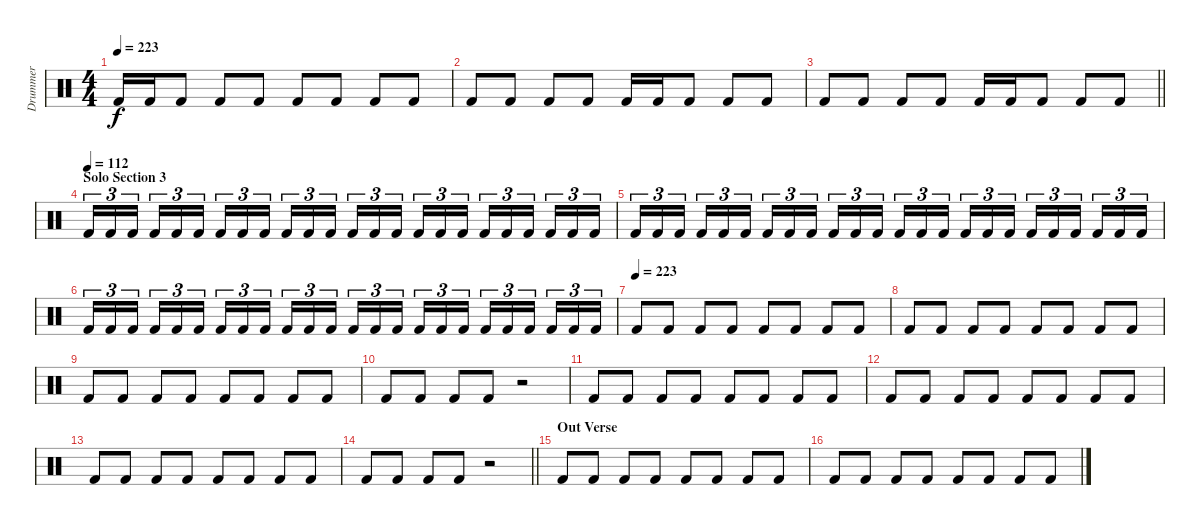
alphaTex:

\track ("Drummer" "Drummer") {instrument percussion}
\staff {score}
\articulation defaults
\ts (4 4)
\tempo 223
\clef neutral
\ks c "Kick (hit) 2".16{dy f} "Kick (hit) 2".16 "Kick (hit) 2".8 "Kick (hit) 2".8 "Kick (hit) 2".8 "Kick (hit) 2".8 "Kick (hit) 2".8 "Kick (hit) 2".8 "Kick (hit) 2".8
|
"Kick (hit) 2".8 "Kick (hit) 2".8 "Kick (hit) 2".8 "Kick (hit) 2".8 "Kick (hit) 2".16 "Kick (hit) 2".16 "Kick (hit) 2".8 "Kick (hit) 2".8 "Kick (hit) 2".8 |
\barLineRight lightlight "Kick (hit) 2".8 "Kick (hit) 2".8 "Kick (hit) 2".8 "Kick (hit) 2".8 "Kick (hit) 2".16 "Kick (hit) 2".16 "Kick (hit) 2".8 "Kick (hit) 2".8 "Kick (hit) 2".8
|
\section ("" "Solo Section 3")
\tempo (112)
"Kick (hit) 2".16{tu (3 2)} "Kick (hit) 2".16{tu (3 2)} "Kick (hit) 2".16{tu (3 2) beam splitsecondary} "Kick (hit) 2".16{tu (3 2)} "Kick (hit) 2".16{tu (3 2)} "Kick (hit) 2".16{tu (3 2)} "Kick (hit) 2".16{tu (3 2)} "Kick (hit) 2".16{tu (3 2)} "Kick (hit) 2".16{tu (3 2) beam splitsecondary} "Kick (hit) 2".16{tu (3 2)} "Kick (hit) 2".16{tu (3 2)} "Kick (hit) 2".16{tu (3 2)} "Kick (hit) 2".16{tu (3 2)} "Kick (hit) 2".16{tu (3 2)} "Kick (hit) 2".16{tu (3 2) beam splitsecondary} "Kick (hit) 2".16{tu (3 2)} "Kick (hit) 2".16{tu (3 2)} "Kick (hit) 2".16{tu (3 2)} "Kick (hit) 2".16{tu (3 2)} "Kick (hit) 2".16{tu (3 2)} "Kick (hit) 2".16{tu (3 2) beam splitsecondary} "Kick (hit) 2".16{tu (3 2)} "Kick (hit) 2".16{tu (3 2)} "Kick (hit) 2".16{tu (3 2)} |
"Kick (hit) 2".16{tu (3 2)} "Kick (hit) 2".16{tu (3 2)} "Kick (hit) 2".16{tu (3 2) beam splitsecondary} "Kick (hit) 2".16{tu (3 2)} "Kick (hit) 2".16{tu (3 2)} "Kick (hit) 2".16{tu (3 2)} "Kick (hit) 2".16{tu (3 2)} "Kick (hit) 2".16{tu (3 2)} "Kick (hit) 2".16{tu (3 2) beam splitsecondary} "Kick (hit) 2".16{tu (3 2)} "Kick (hit) 2".16{tu (3 2)} "Kick (hit) 2".16{tu (3 2)} "Kick (hit) 2".16{tu (3 2)} "Kick (hit) 2".16{tu (3 2)} "Kick (hit) 2".16{tu (3 2) beam splitsecondary} "Kick (hit) 2".16{tu (3 2)} "Kick (hit) 2".16{tu (3 2)} "Kick (hit) 2".16{tu (3 2)} "Kick (hit) 2".16{tu (3 2)} "Kick (hit) 2".16{tu (3 2)} "Kick (hit) 2".16{tu (3 2) beam splitsecondary} "Kick (hit) 2".16{tu (3 2)} "Kick (hit) 2".16{tu (3 2)} "Kick (hit) 2".16{tu (3 2)} |
"Kick (hit) 2".16{tu (3 2)} "Kick (hit) 2".16{tu (3 2)} "Kick (hit) 2".16{tu (3 2) beam splitsecondary} "Kick (hit) 2".16{tu (3 2)} "Kick (hit) 2".16{tu (3 2)} "Kick (hit) 2".16{tu (3 2)} "Kick (hit) 2".16{tu (3 2)} "Kick (hit) 2".16{tu (3 2)} "Kick (hit) 2".16{tu (3 2) beam splitsecondary} "Kick (hit) 2".16{tu (3 2)} "Kick (hit) 2".16{tu (3 2)} "Kick (hit) 2".16{tu (3 2)} "Kick (hit) 2".16{tu (3 2)} "Kick (hit) 2".16{tu (3 2)} "Kick (hit) 2".16{tu (3 2) beam splitsecondary} "Kick (hit) 2".16{tu (3 2)} "Kick (hit) 2".16{tu (3 2)} "Kick (hit) 2".16{tu (3 2)} "Kick (hit) 2".16{tu (3 2)} "Kick (hit) 2".16{tu (3 2)} "Kick (hit) 2".16{tu (3 2) beam splitsecondary} "Kick (hit) 2".16{tu (3 2)} "Kick (hit) 2".16{tu (3 2)} "Kick (hit) 2".16{tu (3 2)} |
\tempo (223)
"Kick (hit) 2".8 "Kick (hit) 2".8 "Kick (hit) 2".8 "Kick (hit) 2".8 "Kick (hit) 2".8 "Kick (hit) 2".8 "Kick (hit) 2".8 "Kick (hit) 2".8 |
"Kick (hit) 2".8 "Kick (hit) 2".8 "Kick (hit) 2".8 "Kick (hit) 2".8 "Kick (hit) 2".8 "Kick (hit) 2".8 "Kick (hit) 2".8 "Kick (hit) 2".8 |
"Kick (hit) 2".8 "Kick (hit) 2".8 "Kick (hit) 2".8 "Kick (hit) 2".8 "Kick (hit) 2".8 "Kick (hit) 2".8 "Kick (hit) 2".8 "Kick (hit) 2".8 |
"Kick (hit) 2".8 "Kick (hit) 2".8 "Kick (hit) 2".8 "Kick (hit) 2".8 r.2 |
"Kick (hit) 2".8 "Kick (hit) 2".8 "Kick (hit) 2".8 "Kick (hit) 2".8 "Kick (hit) 2".8 "Kick (hit) 2".8 "Kick (hit) 2".8 "Kick (hit) 2".8 |
"Kick (hit) 2".8 "Kick (hit) 2".8 "Kick (hit) 2".8 "Kick (hit) 2".8 "Kick (hit) 2".8 "Kick (hit) 2".8 "Kick (hit) 2".8 "Kick (hit) 2".8 |
"Kick (hit) 2".8 "Kick (hit) 2".8 "Kick (hit) 2".8 "Kick (hit) 2".8 "Kick (hit) 2".8 "Kick (hit) 2".8 "Kick (hit) 2".8 "Kick (hit) 2".8 |
\barLineRight lightlight "Kick (hit) 2".8 "Kick (hit) 2".8 "Kick (hit) 2".8 "Kick (hit) 2".8
r.2 |
\section ("" "Out Verse")
"Kick (hit) 2".8 "Kick (hit) 2".8 "Kick (hit) 2".8 "Kick (hit) 2".8 "Kick (hit) 2".8 "Kick (hit) 2".8 "Kick (hit) 2".8 "Kick (hit) 2".8 |
"Kick (hit) 2".8 "Kick (hit) 2".8 "Kick (hit) 2".8 "Kick (hit) 2".8 "Kick (hit) 2".8 "Kick (hit) 2".8 "Kick (hit) 2".8 "Kick (hit) 2".8
